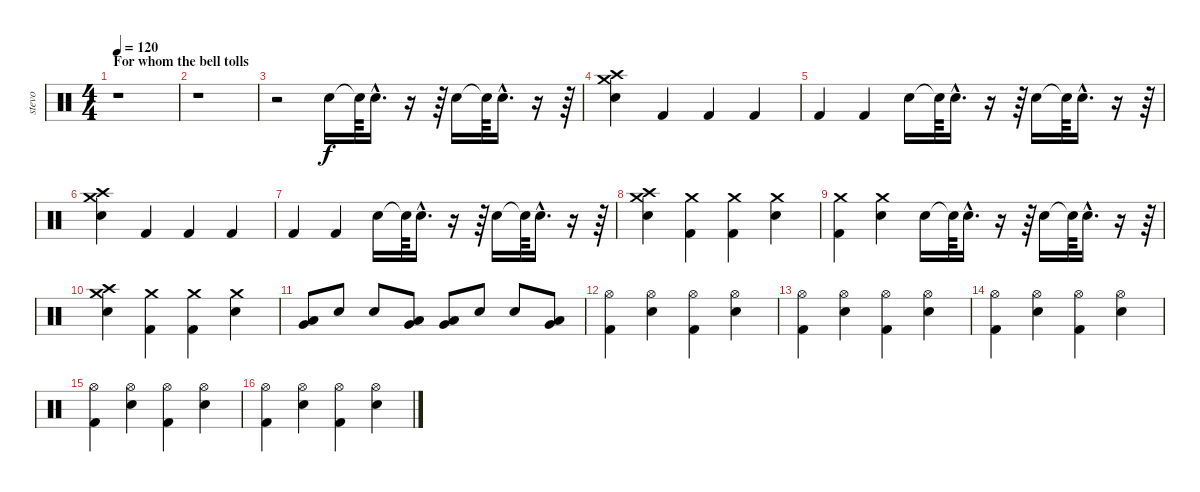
\track ("stevo" "stevo") {instrument percussion}
\staff {score}
\articulation defaults
\ts (4 4)
\section ("" "For whom the bell tolls")
\tempo 120
\clef neutral
\ks c
r.1{dy f} |
r.1 |
r.2 "Electric Snare (hit)".16 "Snare (hit)"{t}.64 "Electric Snare (hit)"{hac}.16{d} r.16 r.64 "Electric Snare (hit)".16 "Snare (hit)"{t}.64 "Electric Snare (hit)"{hac}.16{d} r.16 r.64 |
("Crash high (hit)" "Crash medium (hit)" "Electric Snare (hit)").4 "Kick (hit) 2".4 "Kick (hit) 2".4 "Kick (hit) 2".4 |
"Kick (hit) 2".4 "Kick (hit) 2".4 "Electric Snare (hit)".16 "Snare (hit)"{t}.64 "Electric Snare (hit)"{hac}.16{d} r.16 r.64 "Electric Snare (hit)".16 "Snare (hit)"{t}.64 "Electric Snare (hit)"{hac}.16{d} r.16 r.64 |
("Crash high (hit)" "Crash medium (hit)" "Electric Snare (hit)").4 "Kick (hit) 2".4 "Kick (hit) 2".4 "Kick (hit) 2".4 |
"Kick (hit) 2".4 "Kick (hit) 2".4 "Electric Snare (hit)".16 "Snare (hit)"{t}.64 "Electric Snare (hit)"{hac}.16{d} r.16 r.64 "Electric Snare (hit)".16 "Snare (hit)"{t}.64 "Electric Snare (hit)"{hac}.16{d} r.16 r.64 |
("Crash high (hit)" "Crash medium (hit)" "Electric Snare (hit)").4 ("Crash medium (hit)" "Kick (hit) 2").4 ("Crash medium (hit)" "Kick (hit) 2").4 ("Crash medium (hit)" "Electric Snare (hit)").4 |
("Crash medium (hit)" "Kick (hit) 2").4 ("Crash medium (hit)" "Electric Snare (hit)").4 "Electric Snare (hit)".16 "Snare (hit)"{t}.64 "Electric Snare (hit)"{hac}.16{d} r.16 r.64 "Electric Snare (hit)".16 "Snare (hit)"{t}.64 "Electric Snare (hit)"{hac}.16{d} r.16 r.64 |
("Crash high (hit)" "Crash medium (hit)" "Electric Snare (hit)").4 ("Crash medium (hit)" "Kick (hit) 2").4 ("Crash medium (hit)" "Kick (hit) 2").4 ("Crash medium (hit)" "Electric Snare (hit)").4 |
("Low Floor Tom (hit)" "Very Low Tom (hit)").8 "Electric Snare (hit)".8 "Electric Snare (hit)".8 ("Low Floor Tom (hit)" "Very Low Tom (hit)").8 ("Low Floor Tom (hit)" "Very Low Tom (hit)").8 "Electric Snare (hit)".8 "Electric Snare (hit)".8 ("Low Floor Tom (hit)" "Very Low Tom (hit)").8 |
("Hi-Hat (open)" "Kick (hit) 2").4 ("Hi-Hat (open)" "Electric Snare (hit)").4 ("Hi-Hat (open)" "Kick (hit) 2").4 ("Hi-Hat (open)" "Electric Snare (hit)").4 |
("Hi-Hat (open)" "Kick (hit) 2").4 ("Hi-Hat (open)" "Electric Snare (hit)").4 ("Hi-Hat (open)" "Kick (hit) 2").4 ("Hi-Hat (open)" "Electric Snare (hit)").4 |
("Hi-Hat (open)" "Kick (hit) 2").4 ("Hi-Hat (open)" "Electric Snare (hit)").4 ("Hi-Hat (open)" "Kick (hit) 2").4 ("Hi-Hat (open)" "Electric Snare (hit)").4 |
("Hi-Hat (open)" "Kick (hit) 2").4 ("Hi-Hat (open)" "Electric Snare (hit)").4 ("Hi-Hat (open)" "Kick (hit) 2").4 ("Hi-Hat (open)" "Electric Snare (hit)").4 |
("Hi-Hat (open)" "Kick (hit) 2").4 ("Hi-Hat (open)" "Electric Snare (hit)").4 ("Hi-Hat (open)" "Kick (hit) 2").4 ("Hi-Hat (open)" "Electric Snare (hit)").4
